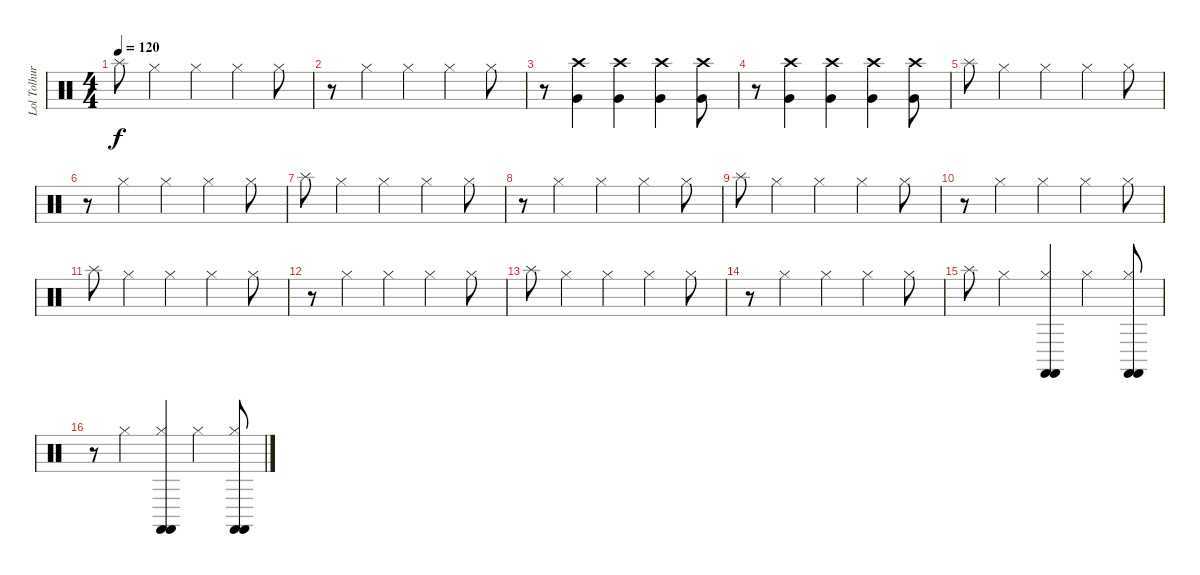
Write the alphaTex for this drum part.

\track ("Lol Tolhurst" "Lol Tolhur") {instrument percussion}
\staff {score}
\articulation defaults
\ts (4 4)
\tempo 120
\clef neutral
\ks c "Splash (hit)".8{dy f} "Hi-Hat (closed)".4 "Hi-Hat (closed)".4 "Hi-Hat (closed)".4 "Hi-Hat (closed)".8
|
r.8 "Hi-Hat (closed)".4 "Hi-Hat (closed)".4 "Hi-Hat (closed)".4 "Hi-Hat (closed)".8 |
r.8 ("Crash high (hit)" "Very Low Tom (hit)").4{volume 5} ("Crash high (hit)" "Very Low Tom (hit)").4 ("Crash high (hit)" "Very Low Tom (hit)").4 ("Crash high (hit)" "Very Low Tom (hit)").8 |
r.8 ("Crash high (hit)" "Very Low Tom (hit)").4 ("Crash high (hit)" "Very Low Tom (hit)").4 ("Crash high (hit)" "Very Low Tom (hit)").4 ("Crash high (hit)" "Very Low Tom (hit)").8 |
"Splash (hit)".8{volume 8} "Hi-Hat (closed)".4 "Hi-Hat (closed)".4 "Hi-Hat (closed)".4 "Hi-Hat (closed)".8 |
r.8 "Hi-Hat (closed)".4 "Hi-Hat (closed)".4 "Hi-Hat (closed)".4 "Hi-Hat (closed)".8 |
"Splash (hit)".8{volume 10} "Hi-Hat (closed)".4 "Hi-Hat (closed)".4 "Hi-Hat (closed)".4 "Hi-Hat (closed)".8 |
r.8 "Hi-Hat (closed)".4 "Hi-Hat (closed)".4 "Hi-Hat (closed)".4 "Hi-Hat (closed)".8 |
"Splash (hit)".8{volume 10} "Hi-Hat (closed)".4 "Hi-Hat (closed)".4 "Hi-Hat (closed)".4 "Hi-Hat (closed)".8 |
r.8 "Hi-Hat (closed)".4 "Hi-Hat (closed)".4 "Hi-Hat (closed)".4 "Hi-Hat (closed)".8 |
"Splash (hit)".8{volume 10} "Hi-Hat (closed)".4 "Hi-Hat (closed)".4 "Hi-Hat (closed)".4 "Hi-Hat (closed)".8 |
r.8 "Hi-Hat (closed)".4 "Hi-Hat (closed)".4 "Hi-Hat (closed)".4 "Hi-Hat (closed)".8 |
"Splash (hit)".8{volume 10} "Hi-Hat (closed)".4 "Hi-Hat (closed)".4 "Hi-Hat (closed)".4 "Hi-Hat (closed)".8 |
r.8 "Hi-Hat (closed)".4 "Hi-Hat (closed)".4 "Hi-Hat (closed)".4 "Hi-Hat (closed)".8 |
"Splash (hit)".8 "Hi-Hat (closed)".4 ("Hi-Hat (closed)" "Castanets (hit)" "Castanets (hit)").4 "Hi-Hat (closed)".4 ("Hi-Hat (closed)" "Castanets (hit)" "Castanets (hit)").8 |
r.8 "Hi-Hat (closed)".4 ("Hi-Hat (closed)" "Castanets (hit)" "Castanets (hit)").4 "Hi-Hat (closed)".4 ("Hi-Hat (closed)" "Castanets (hit)" "Castanets (hit)").8
